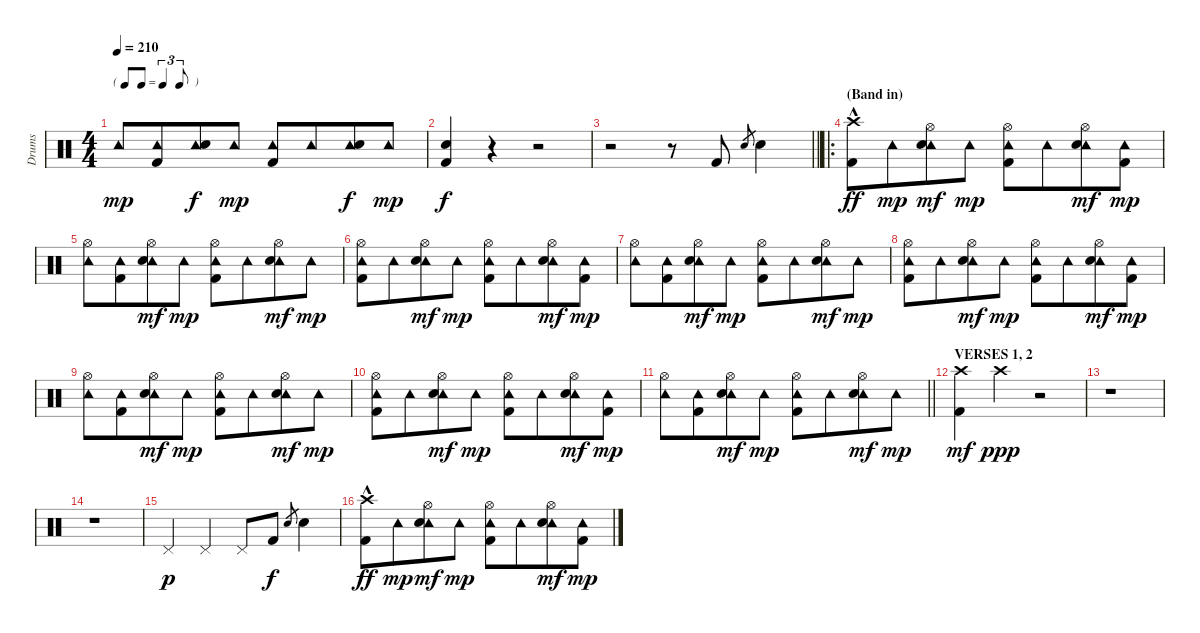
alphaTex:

\track ("Drums" "Drums") {instrument percussion}
\staff {score}
\articulation defaults
\ts (4 4)
\tf triplet8th
\tempo 210
\clef neutral
\ks c "Tambourine (hit)".8{dy mp}
("Tambourine (hit)" "Kick (hit) 2").8{beam merge} ("Tambourine (hit)" "Electric Snare (hit)").8{dy f} "Tambourine (hit)".8{dy mp} ("Tambourine (hit)" "Kick (hit) 2").8 "Tambourine (hit)".8{beam merge} ("Tambourine (hit)" "Electric Snare (hit)").8{dy f} "Tambourine (hit)".8{dy mp} |
("Electric Snare (hit)" "Kick (hit) 2").4{dy f} r.4 r.2 |
\barLineRight lightlight
r.2 r.8 "Kick (hit) 2".8 "Electric Snare (hit)".8{gr} "Electric Snare (hit)".4 |
\ro
\section ("" "(Band in)")
("Crash high (hit)"{hac} "Kick (hit) 2").8{dy ff} "Tambourine (hit)".8{dy mp beam merge} ("Tambourine (hit)" "Hi-Hat (open)" "Electric Snare (hit)").8{dy mf} "Tambourine (hit)".8{dy mp} ("Tambourine (hit)" "Hi-Hat (open)" "Kick (hit) 2").8 "Tambourine (hit)".8{beam merge} ("Tambourine (hit)" "Hi-Hat (open)" "Electric Snare (hit)").8{dy mf} ("Tambourine (hit)" "Kick (hit) 2").8{dy mp} |
("Tambourine (hit)" "Hi-Hat (open)").8 ("Tambourine (hit)" "Kick (hit) 2").8{beam merge} ("Tambourine (hit)" "Hi-Hat (open)" "Electric Snare (hit)").8{dy mf} "Tambourine (hit)".8{dy mp} ("Tambourine (hit)" "Hi-Hat (open)" "Kick (hit) 2").8 "Tambourine (hit)".8{beam merge} ("Tambourine (hit)" "Hi-Hat (open)" "Electric Snare (hit)").8{dy mf} "Tambourine (hit)".8{dy mp} |
("Tambourine (hit)" "Hi-Hat (open)" "Kick (hit) 2").8 "Tambourine (hit)".8{beam merge} ("Tambourine (hit)" "Hi-Hat (open)" "Electric Snare (hit)").8{dy mf} "Tambourine (hit)".8{dy mp} ("Tambourine (hit)" "Hi-Hat (open)" "Kick (hit) 2").8 "Tambourine (hit)".8{beam merge} ("Tambourine (hit)" "Hi-Hat (open)" "Electric Snare (hit)").8{dy mf} ("Tambourine (hit)" "Kick (hit) 2").8{dy mp} |
("Tambourine (hit)" "Hi-Hat (open)").8 ("Tambourine (hit)" "Kick (hit) 2").8{beam merge} ("Tambourine (hit)" "Hi-Hat (open)" "Electric Snare (hit)").8{dy mf} "Tambourine (hit)".8{dy mp} ("Tambourine (hit)" "Hi-Hat (open)" "Kick (hit) 2").8 "Tambourine (hit)".8{beam merge} ("Tambourine (hit)" "Hi-Hat (open)" "Electric Snare (hit)").8{dy mf} "Tambourine (hit)".8{dy mp} |
("Tambourine (hit)" "Hi-Hat (open)" "Kick (hit) 2").8 "Tambourine (hit)".8{beam merge} ("Tambourine (hit)" "Hi-Hat (open)" "Electric Snare (hit)").8{dy mf} "Tambourine (hit)".8{dy mp} ("Tambourine (hit)" "Hi-Hat (open)" "Kick (hit) 2").8 "Tambourine (hit)".8{beam merge} ("Tambourine (hit)" "Hi-Hat (open)" "Electric Snare (hit)").8{dy mf} ("Tambourine (hit)" "Kick (hit) 2").8{dy mp} |
("Tambourine (hit)" "Hi-Hat (open)").8 ("Tambourine (hit)" "Kick (hit) 2").8{beam merge} ("Tambourine (hit)" "Hi-Hat (open)" "Electric Snare (hit)").8{dy mf} "Tambourine (hit)".8{dy mp} ("Tambourine (hit)" "Hi-Hat (open)" "Kick (hit) 2").8 "Tambourine (hit)".8{beam merge} ("Tambourine (hit)" "Hi-Hat (open)" "Electric Snare (hit)").8{dy mf} "Tambourine (hit)".8{dy mp} |
("Tambourine (hit)" "Hi-Hat (open)" "Kick (hit) 2").8 "Tambourine (hit)".8{beam merge} ("Tambourine (hit)" "Hi-Hat (open)" "Electric Snare (hit)").8{dy mf} "Tambourine (hit)".8{dy mp} ("Tambourine (hit)" "Hi-Hat (open)" "Kick (hit) 2").8 "Tambourine (hit)".8{beam merge} ("Tambourine (hit)" "Hi-Hat (open)" "Electric Snare (hit)").8{dy mf} ("Tambourine (hit)" "Kick (hit) 2").8{dy mp} |
\barLineRight lightlight
("Tambourine (hit)" "Hi-Hat (open)").8 ("Tambourine (hit)" "Kick (hit) 2").8{beam merge} ("Tambourine (hit)" "Hi-Hat (open)" "Electric Snare (hit)").8{dy mf} "Tambourine (hit)".8{dy mp} ("Tambourine (hit)" "Hi-Hat (open)" "Kick (hit) 2").8 "Tambourine (hit)".8{beam merge} ("Tambourine (hit)" "Hi-Hat (open)" "Electric Snare (hit)").8{dy mf} "Tambourine (hit)".8{dy mp} |
\section ("" "VERSES 1, 2")
("Crash high (hit)" "Kick (hit) 2").4{dy mf} "Crash high (hit)".4{dy ppp} r.2 |
r.1 |
r.1 |
"Pedal Hi-Hat (hit)".4{dy p} "Pedal Hi-Hat (hit)".4 "Pedal Hi-Hat (hit)".8 "Kick (hit) 2".8{dy f} "Electric Snare (hit)".8{gr} "Electric Snare (hit)".4 |
("Crash high (hit)"{hac} "Kick (hit) 2").8{dy ff} "Tambourine (hit)".8{dy mp beam merge} ("Tambourine (hit)" "Hi-Hat (open)" "Electric Snare (hit)").8{dy mf} "Tambourine (hit)".8{dy mp} ("Tambourine (hit)" "Hi-Hat (open)" "Kick (hit) 2").8 "Tambourine (hit)".8{beam merge} ("Tambourine (hit)" "Hi-Hat (open)" "Electric Snare (hit)").8{dy mf} ("Tambourine (hit)" "Kick (hit) 2").8{dy mp}
